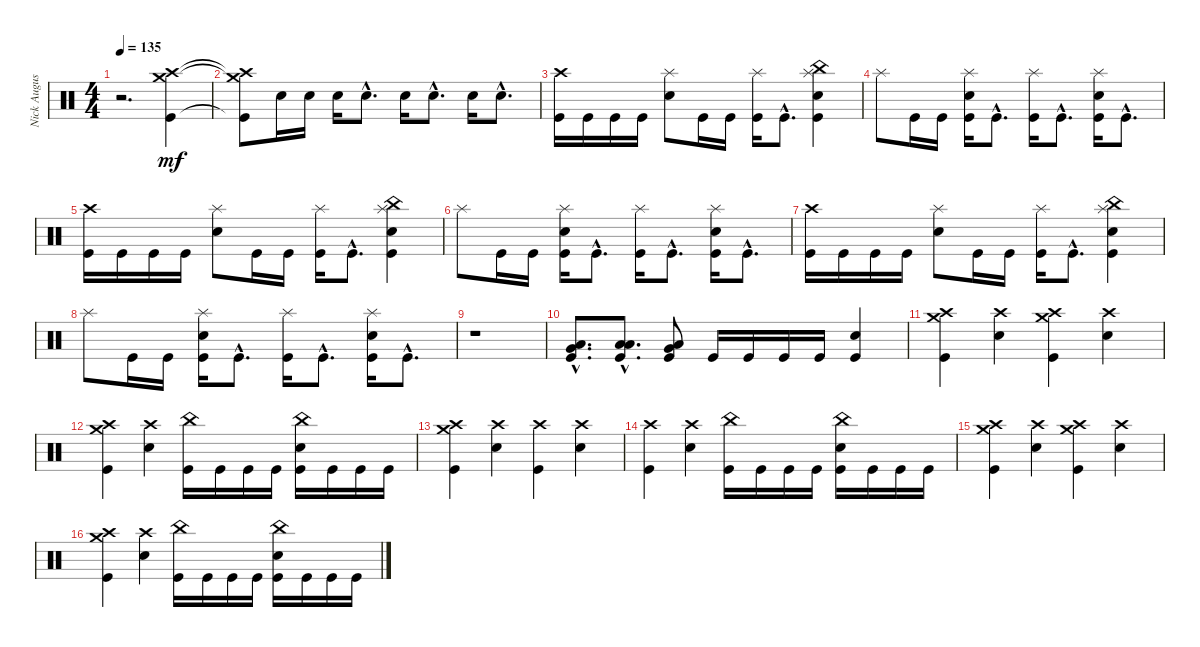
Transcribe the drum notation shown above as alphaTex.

\track ("Nick Augusto" "Nick Augus") {instrument percussion}
\staff {score}
\articulation defaults
\ts (4 4)
\tempo 135
\clef neutral
\ks c
r.2{d dy mf} ("Kick (hit)" "Crash high (hit)" "Crash medium (hit)").4 |
("Kick (hit)"{t} "Crash high (hit)"{t} "Crash medium (hit)"{t}).8 "Snare (hit) 2".16 "Snare (hit) 2".16 "Snare (hit) 2".16 "Snare (hit) 2"{hac}.8{d} "Snare (hit) 2".16 "Snare (hit) 2"{hac}.8{d} "Snare (hit) 2".16 "Snare (hit) 2"{hac}.8{d} |
("Kick (hit)" "Crash high (hit)").16 "Kick (hit)".16 "Kick (hit)".16 "Kick (hit)".16 ("Snare (hit) 2" "Splash (hit)").8 "Kick (hit)".16 "Kick (hit)".16 ("Kick (hit)" "Splash (hit)").16 "Kick (hit)"{hac}.8{d} ("Kick (hit)" "Snare (hit) 2" "China (hit)" "Splash (hit)").4 |
"Splash (hit)".8 "Kick (hit)".16 "Kick (hit)".16 ("Kick (hit)" "Snare (hit) 2" "Splash (hit)").16 "Kick (hit)"{hac}.8{d} ("Kick (hit)" "Splash (hit)").16 "Kick (hit)"{hac}.8{d} ("Kick (hit)" "Snare (hit) 2" "Splash (hit)").16 "Kick (hit)"{hac}.8{d} |
("Kick (hit)" "Crash high (hit)").16 "Kick (hit)".16 "Kick (hit)".16 "Kick (hit)".16 ("Snare (hit) 2" "Splash (hit)").8 "Kick (hit)".16 "Kick (hit)".16 ("Kick (hit)" "Splash (hit)").16 "Kick (hit)"{hac}.8{d} ("Kick (hit)" "Snare (hit) 2" "China (hit)" "Splash (hit)").4 |
"Splash (hit)".8 "Kick (hit)".16 "Kick (hit)".16 ("Kick (hit)" "Snare (hit) 2" "Splash (hit)").16 "Kick (hit)"{hac}.8{d} ("Kick (hit)" "Splash (hit)").16 "Kick (hit)"{hac}.8{d} ("Kick (hit)" "Snare (hit) 2" "Splash (hit)").16 "Kick (hit)"{hac}.8{d} |
("Kick (hit)" "Crash high (hit)").16 "Kick (hit)".16 "Kick (hit)".16 "Kick (hit)".16 ("Snare (hit) 2" "Splash (hit)").8 "Kick (hit)".16 "Kick (hit)".16 ("Kick (hit)" "Splash (hit)").16 "Kick (hit)"{hac}.8{d} ("Kick (hit)" "Snare (hit) 2" "China (hit)" "Splash (hit)").4 |
"Splash (hit)".8 "Kick (hit)".16 "Kick (hit)".16 ("Kick (hit)" "Snare (hit) 2" "Splash (hit)").16 "Kick (hit)"{hac}.8{d} ("Kick (hit)" "Splash (hit)").16 "Kick (hit)"{hac}.8{d} ("Kick (hit)" "Snare (hit) 2" "Splash (hit)").16 "Kick (hit)"{hac}.8{d} |
r.1 |
("Kick (hit)"{hac} "Very Low Tom (hit)"{hac} "Low Tom (hit)"{hac}).8{d} ("Kick (hit)"{hac} "Low Floor Tom (hit)"{hac} "Low Tom (hit)"{hac}).8{d} ("Kick (hit)" "Low Floor Tom (hit)" "Very Low Tom (hit)").8 "Kick (hit)".16 "Kick (hit)".16 "Kick (hit)".16 "Kick (hit)".16 ("Kick (hit)" "Snare (hit) 2").4 |
("Kick (hit)" "Crash high (hit)" "Crash medium (hit)").4 ("Snare (hit) 2" "Crash high (hit)").4 ("Kick (hit)" "Crash high (hit)" "Crash medium (hit)").4 ("Snare (hit) 2" "Crash high (hit)").4 |
("Kick (hit)" "Crash high (hit)" "Crash medium (hit)").4 ("Snare (hit) 2" "Crash high (hit)").4 ("Kick (hit)" "China (hit)").16 "Kick (hit)".16 "Kick (hit)".16 "Kick (hit)".16 ("Kick (hit)" "Snare (hit) 2" "China (hit)").16 "Kick (hit)".16 "Kick (hit)".16 "Kick (hit)".16 |
("Kick (hit)" "Crash high (hit)" "Crash medium (hit)").4 ("Snare (hit) 2" "Crash high (hit)").4 ("Kick (hit)" "Crash high (hit)").4 ("Snare (hit) 2" "Crash high (hit)").4 |
("Kick (hit)" "Crash high (hit)").4 ("Snare (hit) 2" "Crash high (hit)").4 ("Kick (hit)" "China (hit)").16 "Kick (hit)".16 "Kick (hit)".16 "Kick (hit)".16 ("Kick (hit)" "Snare (hit) 2" "China (hit)").16 "Kick (hit)".16 "Kick (hit)".16 "Kick (hit)".16 |
("Kick (hit)" "Crash high (hit)" "Crash medium (hit)").4 ("Snare (hit) 2" "Crash high (hit)").4 ("Kick (hit)" "Crash high (hit)" "Crash medium (hit)").4 ("Snare (hit) 2" "Crash high (hit)").4 |
("Kick (hit)" "Crash high (hit)" "Crash medium (hit)").4 ("Snare (hit) 2" "Crash high (hit)").4 ("Kick (hit)" "China (hit)").16 "Kick (hit)".16 "Kick (hit)".16 "Kick (hit)".16 ("Kick (hit)" "Snare (hit) 2" "China (hit)").16 "Kick (hit)".16 "Kick (hit)".16 "Kick (hit)".16
